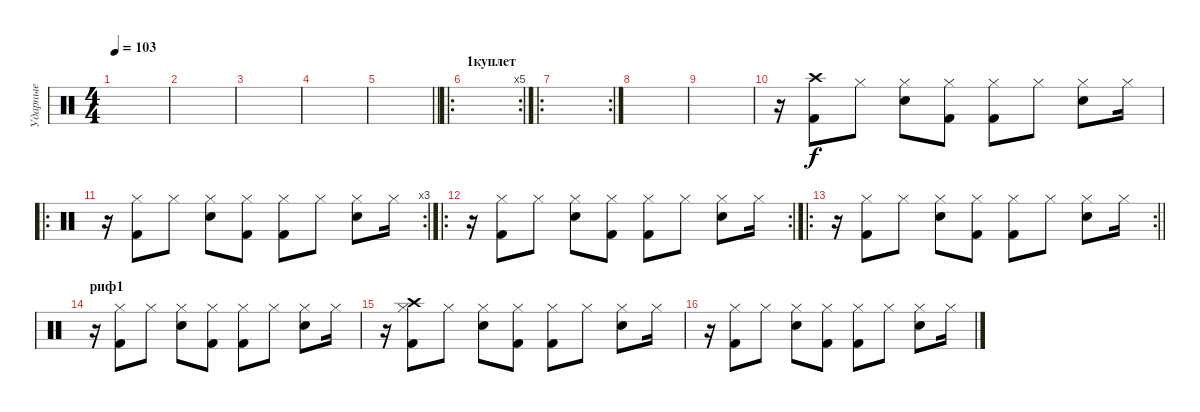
\track ("Ударные" "Ударные") {instrument percussion}
\staff {score}
\articulation defaults
\ts (4 4)
\tempo 103
\clef neutral
\ks c
|
|
|
|
\barLineRight lightlight
|
\ro
\rc 5
\section ("" "1куплет")
|
\ro
\rc 2
|
|
|
r.16 ("Kick (hit) 2" "Crash high (hit)").8 "Hi-Hat (closed)".8 ("Hi-Hat (closed)" "Electric Snare (hit)").8 ("Hi-Hat (closed)" "Kick (hit) 2").8 ("Hi-Hat (closed)" "Kick (hit) 2").8 "Hi-Hat (closed)".8 ("Hi-Hat (closed)" "Electric Snare (hit)").8 "Hi-Hat (closed)".16 |
\ro
\rc 3
r.16 ("Hi-Hat (closed)" "Kick (hit) 2").8 "Hi-Hat (closed)".8 ("Hi-Hat (closed)" "Electric Snare (hit)").8 ("Hi-Hat (closed)" "Kick (hit) 2").8 ("Hi-Hat (closed)" "Kick (hit) 2").8 "Hi-Hat (closed)".8 ("Hi-Hat (closed)" "Electric Snare (hit)").8 "Hi-Hat (closed)".16 |
\ro
\rc 2
r.16 ("Hi-Hat (closed)" "Kick (hit) 2").8 "Hi-Hat (closed)".8 ("Hi-Hat (closed)" "Electric Snare (hit)").8 ("Hi-Hat (closed)" "Kick (hit) 2").8 ("Hi-Hat (closed)" "Kick (hit) 2").8 "Hi-Hat (closed)".8 ("Hi-Hat (closed)" "Electric Snare (hit)").8 "Hi-Hat (closed)".16 |
\ro
\rc 2
\barLineRight lightlight
r.16 ("Hi-Hat (closed)" "Kick (hit) 2").8 "Hi-Hat (closed)".8 ("Hi-Hat (closed)" "Electric Snare (hit)").8 ("Hi-Hat (closed)" "Kick (hit) 2").8 ("Hi-Hat (closed)" "Kick (hit) 2").8 "Hi-Hat (closed)".8 ("Hi-Hat (closed)" "Electric Snare (hit)").8 "Hi-Hat (closed)".16 |
\section ("" "риф1")
r.16 ("Hi-Hat (closed)" "Kick (hit) 2").8 "Hi-Hat (closed)".8 ("Hi-Hat (closed)" "Electric Snare (hit)").8 ("Hi-Hat (closed)" "Kick (hit) 2").8 ("Hi-Hat (closed)" "Kick (hit) 2").8 "Hi-Hat (closed)".8 ("Hi-Hat (closed)" "Electric Snare (hit)").8 "Hi-Hat (closed)".16 |
r.16 ("Hi-Hat (closed)" "Kick (hit) 2" "Crash high (hit)").8 "Hi-Hat (closed)".8 ("Hi-Hat (closed)" "Electric Snare (hit)").8 ("Hi-Hat (closed)" "Kick (hit) 2").8 ("Hi-Hat (closed)" "Kick (hit) 2").8 "Hi-Hat (closed)".8 ("Hi-Hat (closed)" "Electric Snare (hit)").8 "Hi-Hat (closed)".16 |
r.16 ("Hi-Hat (closed)" "Kick (hit) 2").8 "Hi-Hat (closed)".8 ("Hi-Hat (closed)" "Electric Snare (hit)").8 ("Hi-Hat (closed)" "Kick (hit) 2").8 ("Hi-Hat (closed)" "Kick (hit) 2").8 "Hi-Hat (closed)".8 ("Hi-Hat (closed)" "Electric Snare (hit)").8 "Hi-Hat (closed)".16
